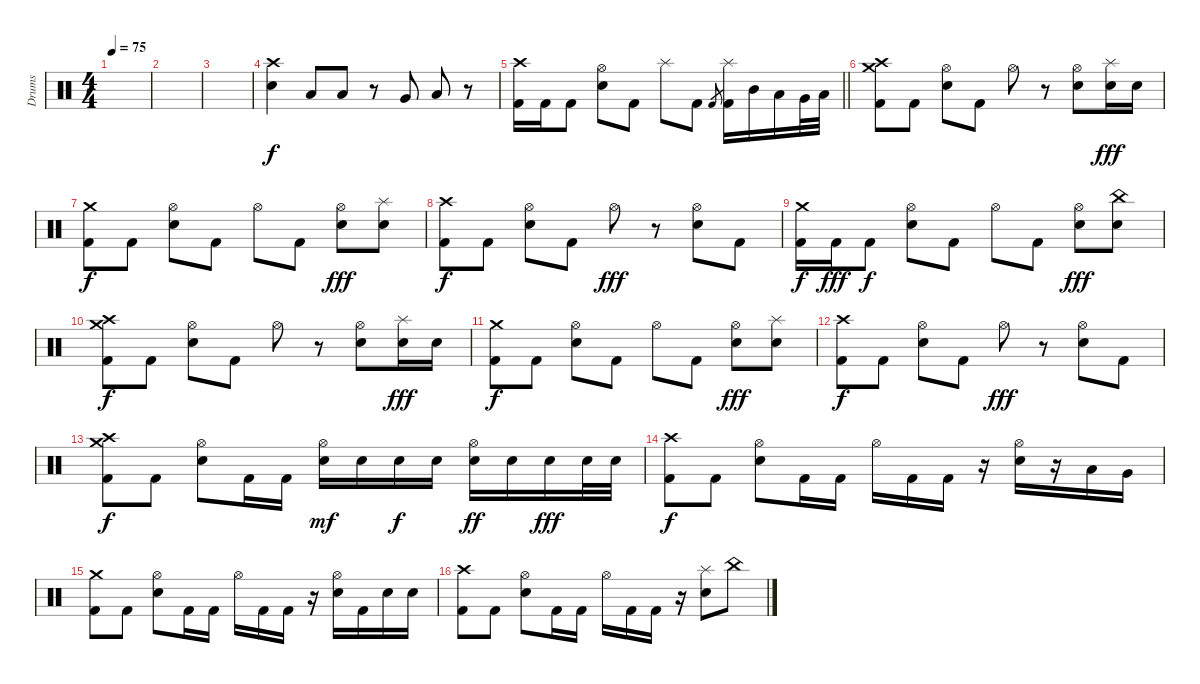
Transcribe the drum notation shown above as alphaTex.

\track ("Drums" "Drums") {instrument percussion}
\staff {score}
\articulation defaults
\ts (4 4)
\tempo 75
\clef neutral
\ks c
|
|
|
("Electric Snare (hit)" "Crash high (hit)").4 "Low Tom (hit)".8 "Low Tom (hit)".8 r.8 "Very Low Tom (hit)".8 "Low Floor Tom (hit)".8 r.8 |
\barLineRight lightlight
("Kick (hit) 2" "Crash high (hit)").16 "Kick (hit) 2".16 "Kick (hit) 2".8 ("Electric Snare (hit)" "Hi-Hat (open)").8 "Kick (hit) 2".8 "Splash (hit)".8 "Kick (hit) 2".8 "Kick (hit) 2".8{gr} ("Kick (hit) 2" "Splash (hit)").16 "Mid Tom (hit)".16 "Low Tom (hit)".16 "Very Low Tom (hit)".32 "Low Floor Tom (hit)".32 |
("Kick (hit) 2" "Crash high (hit)" "Crash medium (hit)").8 "Kick (hit) 2".8 ("Electric Snare (hit)" "Hi-Hat (open)").8 "Kick (hit) 2".8 "Hi-Hat (open)".8 r.8 ("Electric Snare (hit)" "Hi-Hat (open)").8 ("Electric Snare (hit)" "Splash (hit)").16{dy fff} "Electric Snare (hit)".16 |
("Kick (hit) 2" "Crash medium (hit)").8{dy f} "Kick (hit) 2".8 ("Electric Snare (hit)" "Hi-Hat (open)").8 "Kick (hit) 2".8 "Hi-Hat (open)".8 "Kick (hit) 2".8 ("Electric Snare (hit)" "Hi-Hat (open)").8{dy fff} ("Electric Snare (hit)" "Splash (hit)").8 |
("Kick (hit) 2" "Crash high (hit)").8{dy f} "Kick (hit) 2".8 ("Electric Snare (hit)" "Hi-Hat (open)").8 "Kick (hit) 2".8 "Hi-Hat (open)".8{dy fff} r.8 ("Electric Snare (hit)" "Hi-Hat (open)").8 "Kick (hit) 2".8 |
("Kick (hit) 2" "Crash medium (hit)").16{dy f} "Kick (hit) 2".16{dy fff} "Kick (hit) 2".8{dy f} ("Electric Snare (hit)" "Hi-Hat (open)").8 "Kick (hit) 2".8 "Hi-Hat (open)".8 "Kick (hit) 2".8 ("Electric Snare (hit)" "Hi-Hat (open)").8{dy fff} ("Electric Snare (hit)" "China (hit)").8 |
("Kick (hit) 2" "Crash high (hit)" "Crash medium (hit)").8{dy f} "Kick (hit) 2".8 ("Electric Snare (hit)" "Hi-Hat (open)").8 "Kick (hit) 2".8 "Hi-Hat (open)".8 r.8 ("Electric Snare (hit)" "Hi-Hat (open)").8 ("Electric Snare (hit)" "Splash (hit)").16{dy fff} "Electric Snare (hit)".16 |
("Kick (hit) 2" "Crash medium (hit)").8{dy f} "Kick (hit) 2".8 ("Electric Snare (hit)" "Hi-Hat (open)").8 "Kick (hit) 2".8 "Hi-Hat (open)".8 "Kick (hit) 2".8 ("Electric Snare (hit)" "Hi-Hat (open)").8{dy fff} ("Electric Snare (hit)" "Splash (hit)").8 |
("Kick (hit) 2" "Crash high (hit)").8{dy f} "Kick (hit) 2".8 ("Electric Snare (hit)" "Hi-Hat (open)").8 "Kick (hit) 2".8 "Hi-Hat (open)".8{dy fff} r.8 ("Electric Snare (hit)" "Hi-Hat (open)").8 "Kick (hit) 2".8 |
("Kick (hit) 2" "Crash high (hit)" "Crash medium (hit)").8{dy f} "Kick (hit) 2".8 ("Electric Snare (hit)" "Hi-Hat (open)").8 "Kick (hit) 2".16 "Kick (hit) 2".16 ("Electric Snare (hit)" "Hi-Hat (open)").16{dy mf} "Electric Snare (hit)".16 "Electric Snare (hit)".16{dy f} "Electric Snare (hit)".16 ("Electric Snare (hit)" "Hi-Hat (open)").16{dy ff} "Electric Snare (hit)".16 "Electric Snare (hit)".16{dy fff} "Electric Snare (hit)".32 "Electric Snare (hit)".32 |
("Kick (hit) 2" "Crash high (hit)").8{dy f} "Kick (hit) 2".8 ("Electric Snare (hit)" "Hi-Hat (open)").8 "Kick (hit) 2".16 "Kick (hit) 2".16 "Hi-Hat (open)".16 "Kick (hit) 2".16 "Kick (hit) 2".16 r.16 ("Electric Snare (hit)" "Hi-Hat (open)").16 r.16 "Low Tom (hit)".16 "Very Low Tom (hit)".16 |
("Kick (hit) 2" "Crash medium (hit)").8 "Kick (hit) 2".8 ("Electric Snare (hit)" "Hi-Hat (open)").8 "Kick (hit) 2".16 "Kick (hit) 2".16 "Hi-Hat (open)".16 "Kick (hit) 2".16 "Kick (hit) 2".16 r.16 ("Electric Snare (hit)" "Hi-Hat (open)").16 "Kick (hit) 2".16 "Electric Snare (hit)".16 "Electric Snare (hit)".16 |
("Kick (hit) 2" "Crash high (hit)").8 "Kick (hit) 2".8 ("Electric Snare (hit)" "Hi-Hat (open)").8 "Kick (hit) 2".16 "Kick (hit) 2".16 "Hi-Hat (open)".16 "Kick (hit) 2".16 "Kick (hit) 2".16 r.16 ("Electric Snare (hit)" "Splash (hit)").8 "China (hit)".8
